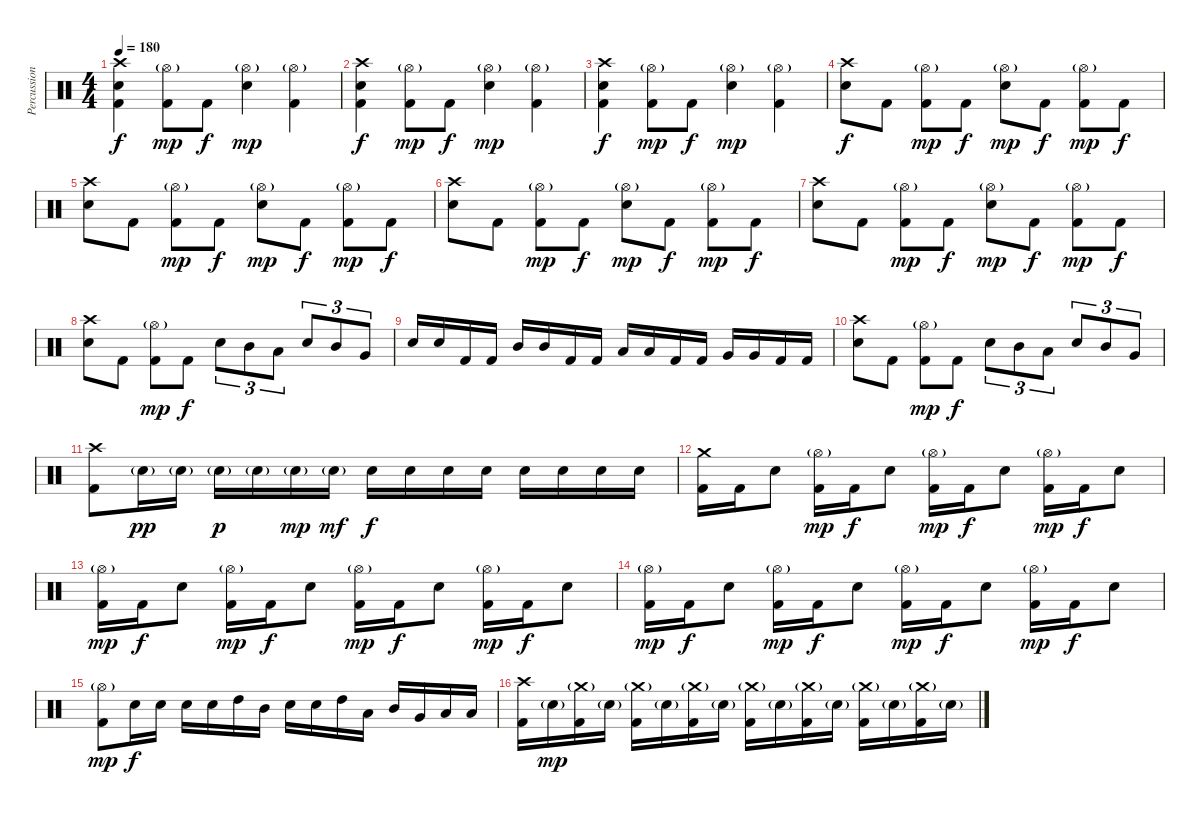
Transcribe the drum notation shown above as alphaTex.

\track ("Percussion" "Percussion") {instrument percussion}
\staff {score}
\articulation defaults
\ts (4 4)
\tempo 180
\clef neutral
\ks c
("Crash high (hit)" "Electric Snare (hit)" "Kick (hit) 2").4{dy f} ("Hi-Hat (open)"{g} "Kick (hit) 2").8{dy mp} "Kick (hit) 2".8{dy f} ("Hi-Hat (open)"{g} "Electric Snare (hit)").4{dy mp} ("Hi-Hat (open)"{g} "Kick (hit) 2").4 |
("Crash high (hit)" "Electric Snare (hit)" "Kick (hit) 2").4{dy f} ("Hi-Hat (open)"{g} "Kick (hit) 2").8{dy mp} "Kick (hit) 2".8{dy f} ("Hi-Hat (open)"{g} "Electric Snare (hit)").4{dy mp} ("Hi-Hat (open)"{g} "Kick (hit) 2").4 |
("Crash high (hit)" "Electric Snare (hit)" "Kick (hit) 2").4{dy f} ("Hi-Hat (open)"{g} "Kick (hit) 2").8{dy mp} "Kick (hit) 2".8{dy f} ("Hi-Hat (open)"{g} "Electric Snare (hit)").4{dy mp} ("Hi-Hat (open)"{g} "Kick (hit) 2").4 |
("Crash high (hit)" "Electric Snare (hit)").8{dy f} "Kick (hit) 2".8 ("Hi-Hat (open)"{g} "Kick (hit) 2").8{dy mp} "Kick (hit) 2".8{dy f} ("Hi-Hat (open)"{g} "Electric Snare (hit)").8{dy mp} "Kick (hit) 2".8{dy f} ("Hi-Hat (open)"{g} "Kick (hit) 2").8{dy mp} "Kick (hit) 2".8{dy f} |
("Crash high (hit)" "Electric Snare (hit)").8 "Kick (hit) 2".8 ("Hi-Hat (open)"{g} "Kick (hit) 2").8{dy mp} "Kick (hit) 2".8{dy f} ("Hi-Hat (open)"{g} "Electric Snare (hit)").8{dy mp} "Kick (hit) 2".8{dy f} ("Hi-Hat (open)"{g} "Kick (hit) 2").8{dy mp} "Kick (hit) 2".8{dy f} |
("Crash high (hit)" "Electric Snare (hit)").8 "Kick (hit) 2".8 ("Hi-Hat (open)"{g} "Kick (hit) 2").8{dy mp} "Kick (hit) 2".8{dy f} ("Hi-Hat (open)"{g} "Electric Snare (hit)").8{dy mp} "Kick (hit) 2".8{dy f} ("Hi-Hat (open)"{g} "Kick (hit) 2").8{dy mp} "Kick (hit) 2".8{dy f} |
("Crash high (hit)" "Electric Snare (hit)").8 "Kick (hit) 2".8 ("Hi-Hat (open)"{g} "Kick (hit) 2").8{dy mp} "Kick (hit) 2".8{dy f} ("Hi-Hat (open)"{g} "Electric Snare (hit)").8{dy mp} "Kick (hit) 2".8{dy f} ("Hi-Hat (open)"{g} "Kick (hit) 2").8{dy mp} "Kick (hit) 2".8{dy f} |
("Crash high (hit)" "Electric Snare (hit)").8 "Kick (hit) 2".8 ("Hi-Hat (open)"{g} "Kick (hit) 2").8{dy mp} "Kick (hit) 2".8{dy f} "Electric Snare (hit)".8{tu (3 2)} "Mid Tom (hit)".8{tu (3 2)} "Low Tom (hit)".8{tu (3 2)} "Electric Snare (hit)".8{tu (3 2)} "Mid Tom (hit)".8{tu (3 2)} "Very Low Tom (hit)".8{tu (3 2)} |
"Electric Snare (hit)".16 "Electric Snare (hit)".16 "Kick (hit) 2".16 "Kick (hit) 2".16 "Mid Tom (hit)".16 "Mid Tom (hit)".16 "Kick (hit) 2".16 "Kick (hit) 2".16 "Low Tom (hit)".16 "Low Tom (hit)".16 "Kick (hit) 2".16 "Kick (hit) 2".16 "Very Low Tom (hit)".16 "Very Low Tom (hit)".16 "Kick (hit) 2".16 "Kick (hit) 2".16 |
("Crash high (hit)" "Electric Snare (hit)").8 "Kick (hit) 2".8 ("Hi-Hat (open)"{g} "Kick (hit) 2").8{dy mp} "Kick (hit) 2".8{dy f} "Electric Snare (hit)".8{tu (3 2)} "Mid Tom (hit)".8{tu (3 2)} "Low Tom (hit)".8{tu (3 2)} "Electric Snare (hit)".8{tu (3 2)} "Mid Tom (hit)".8{tu (3 2)} "Very Low Tom (hit)".8{tu (3 2)} |
("Crash high (hit)" "Kick (hit) 2").8 "Electric Snare (hit)"{g}.16{dy pp} "Electric Snare (hit)"{g}.16 "Electric Snare (hit)"{g}.16{dy p} "Electric Snare (hit)"{g}.16 "Electric Snare (hit)"{g}.16{dy mp} "Electric Snare (hit)"{g}.16{dy mf} "Electric Snare (hit)".16{dy f} "Electric Snare (hit)".16 "Electric Snare (hit)".16 "Electric Snare (hit)".16 "Electric Snare (hit)".16 "Electric Snare (hit)".16 "Electric Snare (hit)".16 "Electric Snare (hit)".16 |
("Crash medium (hit)" "Kick (hit) 2").16 "Kick (hit) 2".16 "Electric Snare (hit)".8 ("Hi-Hat (open)"{g} "Kick (hit) 2").16{dy mp} "Kick (hit) 2".16{dy f} "Electric Snare (hit)".8 ("Hi-Hat (open)"{g} "Kick (hit) 2").16{dy mp} "Kick (hit) 2".16{dy f} "Electric Snare (hit)".8 ("Hi-Hat (open)"{g} "Kick (hit) 2").16{dy mp} "Kick (hit) 2".16{dy f} "Electric Snare (hit)".8 |
("Hi-Hat (open)"{g} "Kick (hit) 2").16{dy mp} "Kick (hit) 2".16{dy f} "Electric Snare (hit)".8 ("Hi-Hat (open)"{g} "Kick (hit) 2").16{dy mp} "Kick (hit) 2".16{dy f} "Electric Snare (hit)".8 ("Hi-Hat (open)"{g} "Kick (hit) 2").16{dy mp} "Kick (hit) 2".16{dy f} "Electric Snare (hit)".8 ("Hi-Hat (open)"{g} "Kick (hit) 2").16{dy mp} "Kick (hit) 2".16{dy f} "Electric Snare (hit)".8 |
("Hi-Hat (open)"{g} "Kick (hit) 2").16{dy mp} "Kick (hit) 2".16{dy f} "Electric Snare (hit)".8 ("Hi-Hat (open)"{g} "Kick (hit) 2").16{dy mp} "Kick (hit) 2".16{dy f} "Electric Snare (hit)".8 ("Hi-Hat (open)"{g} "Kick (hit) 2").16{dy mp} "Kick (hit) 2".16{dy f} "Electric Snare (hit)".8 ("Hi-Hat (open)"{g} "Kick (hit) 2").16{dy mp} "Kick (hit) 2".16{dy f} "Electric Snare (hit)".8 |
("Hi-Hat (open)"{g} "Kick (hit) 2").8{dy mp} "Electric Snare (hit)".16{dy f} "Electric Snare (hit)".16 "Electric Snare (hit)".16 "Electric Snare (hit)".16 "High Tom (hit)".16 "Mid Tom (hit)".16 "Electric Snare (hit)".16 "Electric Snare (hit)".16 "High Tom (hit)".16 "Low Tom (hit)".16 "Mid Tom (hit)".16 "Very Low Tom (hit)".16 "Low Tom (hit)".16 "Low Floor Tom (hit)".16 |
("Crash high (hit)" "Kick (hit) 2").16 "Electric Snare (hit)"{g}.16{dy mp} ("Crash medium (hit)"{g} "Kick (hit) 2").16 "Electric Snare (hit)"{g}.16 ("Crash medium (hit)"{g} "Kick (hit) 2").16 "Electric Snare (hit)"{g}.16 ("Crash medium (hit)"{g} "Kick (hit) 2").16 "Electric Snare (hit)"{g}.16 ("Crash medium (hit)"{g} "Kick (hit) 2").16 "Electric Snare (hit)"{g}.16 ("Crash medium (hit)"{g} "Kick (hit) 2").16 "Electric Snare (hit)"{g}.16 ("Crash medium (hit)"{g} "Kick (hit) 2").16 "Electric Snare (hit)"{g}.16 ("Crash medium (hit)"{g} "Kick (hit) 2").16 "Electric Snare (hit)"{g}.16
